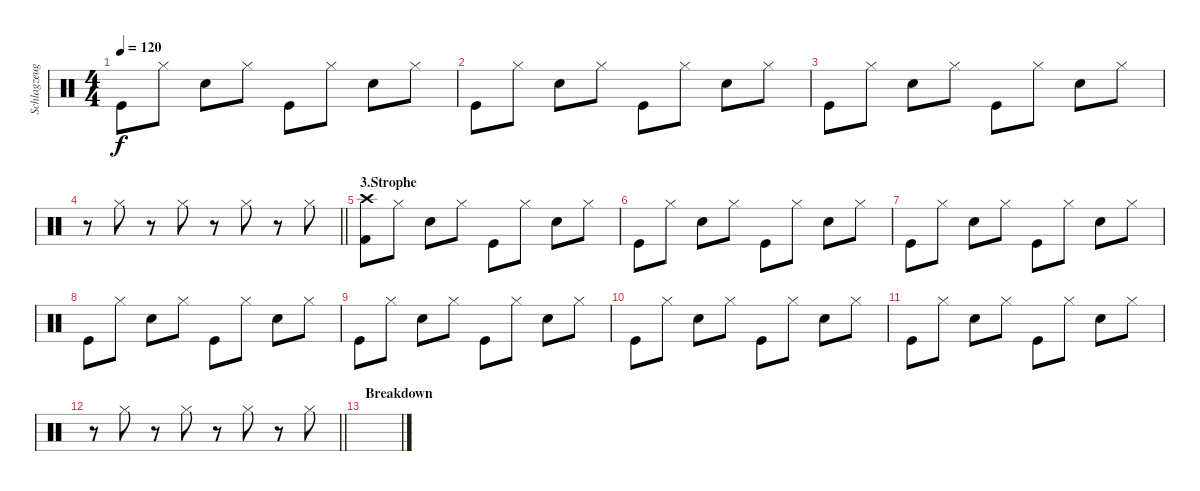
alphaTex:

\track ("Schlagzeug" "Schlagzeug") {instrument percussion}
\staff {score}
\articulation defaults
\ts (4 4)
\tempo 120
\clef neutral
\ks c "Kick (hit)".8{dy f} "Hi-Hat (closed)".8 "Electric Snare (hit)".8 "Hi-Hat (closed)".8 "Kick (hit)".8 "Hi-Hat (closed)".8 "Electric Snare (hit)".8 "Hi-Hat (closed)".8
|
"Kick (hit)".8 "Hi-Hat (closed)".8 "Electric Snare (hit)".8 "Hi-Hat (closed)".8 "Kick (hit)".8 "Hi-Hat (closed)".8 "Electric Snare (hit)".8 "Hi-Hat (closed)".8 |
"Kick (hit)".8 "Hi-Hat (closed)".8 "Electric Snare (hit)".8 "Hi-Hat (closed)".8 "Kick (hit)".8 "Hi-Hat (closed)".8 "Electric Snare (hit)".8 "Hi-Hat (closed)".8 |
\barLineRight lightlight
r.8 "Hi-Hat (closed)".8 r.8 "Hi-Hat (closed)".8 r.8 "Hi-Hat (closed)".8 r.8 "Hi-Hat (closed)".8 |
\section ("" "3.Strophe")
("Crash high (hit)" "Kick (hit) 2").8 "Hi-Hat (closed)".8 "Snare (hit) 2".8 "Hi-Hat (closed)".8 "Kick (hit)".8 "Hi-Hat (closed)".8 "Electric Snare (hit)".8 "Hi-Hat (closed)".8 |
"Kick (hit)".8 "Hi-Hat (closed)".8 "Electric Snare (hit)".8 "Hi-Hat (closed)".8 "Kick (hit)".8 "Hi-Hat (closed)".8 "Electric Snare (hit)".8 "Hi-Hat (closed)".8 |
"Kick (hit)".8 "Hi-Hat (closed)".8 "Electric Snare (hit)".8 "Hi-Hat (closed)".8 "Kick (hit)".8 "Hi-Hat (closed)".8 "Electric Snare (hit)".8 "Hi-Hat (closed)".8 |
"Kick (hit)".8 "Hi-Hat (closed)".8 "Electric Snare (hit)".8 "Hi-Hat (closed)".8 "Kick (hit)".8 "Hi-Hat (closed)".8 "Electric Snare (hit)".8 "Hi-Hat (closed)".8 |
"Kick (hit)".8 "Hi-Hat (closed)".8 "Electric Snare (hit)".8 "Hi-Hat (closed)".8 "Kick (hit)".8 "Hi-Hat (closed)".8 "Electric Snare (hit)".8 "Hi-Hat (closed)".8 |
"Kick (hit)".8 "Hi-Hat (closed)".8 "Electric Snare (hit)".8 "Hi-Hat (closed)".8 "Kick (hit)".8 "Hi-Hat (closed)".8 "Electric Snare (hit)".8 "Hi-Hat (closed)".8 |
"Kick (hit)".8 "Hi-Hat (closed)".8 "Electric Snare (hit)".8 "Hi-Hat (closed)".8 "Kick (hit)".8 "Hi-Hat (closed)".8 "Electric Snare (hit)".8 "Hi-Hat (closed)".8 |
\barLineRight lightlight
r.8 "Hi-Hat (closed)".8 r.8 "Hi-Hat (closed)".8 r.8 "Hi-Hat (closed)".8 r.8 "Hi-Hat (closed)".8 |
\section ("" "Breakdown")
